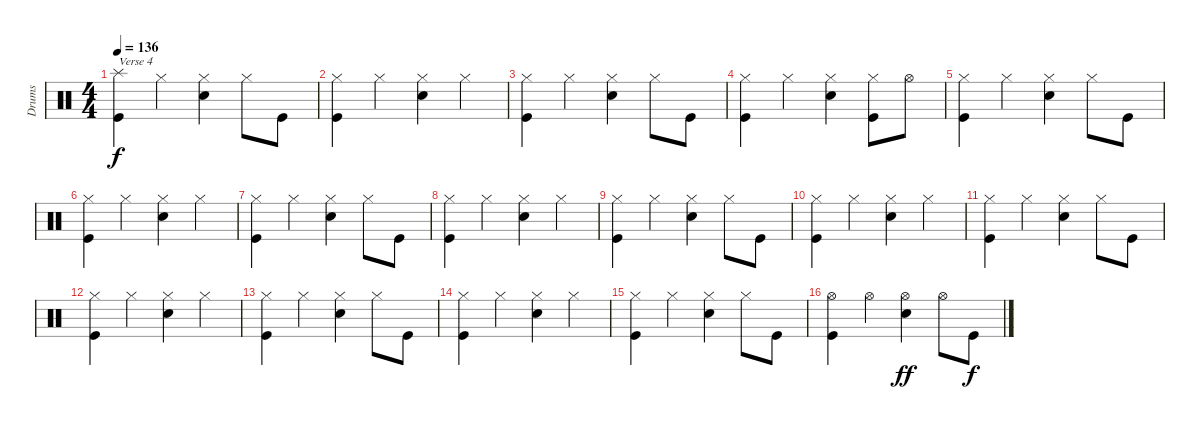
\track ("Drums" "Drums") {instrument percussion}
\staff {score}
\articulation defaults
\ts (4 4)
\tempo 136
\clef neutral
\ks c
("Splash (hit)" "Kick (hit)").4{txt "Verse 4" dy f} "Hi-Hat (closed)".4 ("Hi-Hat (closed)" "Snare (hit) 2").4 "Hi-Hat (closed)".8 "Kick (hit)".8 |
("Hi-Hat (closed)" "Kick (hit)").4 "Hi-Hat (closed)".4 ("Hi-Hat (closed)" "Snare (hit) 2").4 "Hi-Hat (closed)".4 |
("Hi-Hat (closed)" "Kick (hit)").4 "Hi-Hat (closed)".4 ("Hi-Hat (closed)" "Snare (hit) 2").4 "Hi-Hat (closed)".8 "Kick (hit)".8 |
("Hi-Hat (closed)" "Kick (hit)").4 "Hi-Hat (closed)".4 ("Hi-Hat (closed)" "Snare (hit) 2").4 ("Hi-Hat (closed)" "Kick (hit)").8 "Hi-Hat (open)".8 |
("Hi-Hat (closed)" "Kick (hit)").4 "Hi-Hat (closed)".4 ("Hi-Hat (closed)" "Snare (hit) 2").4 "Hi-Hat (closed)".8 "Kick (hit)".8 |
("Hi-Hat (closed)" "Kick (hit)").4 "Hi-Hat (closed)".4 ("Hi-Hat (closed)" "Snare (hit) 2").4 "Hi-Hat (closed)".4 |
("Hi-Hat (closed)" "Kick (hit)").4 "Hi-Hat (closed)".4 ("Hi-Hat (closed)" "Snare (hit) 2").4 "Hi-Hat (closed)".8 "Kick (hit)".8 |
("Hi-Hat (closed)" "Kick (hit)").4 "Hi-Hat (closed)".4 ("Hi-Hat (closed)" "Snare (hit) 2").4 "Hi-Hat (closed)".4 |
("Hi-Hat (closed)" "Kick (hit)").4 "Hi-Hat (closed)".4 ("Hi-Hat (closed)" "Snare (hit) 2").4 "Hi-Hat (closed)".8 "Kick (hit)".8 |
("Hi-Hat (closed)" "Kick (hit)").4 "Hi-Hat (closed)".4 ("Hi-Hat (closed)" "Snare (hit) 2").4 "Hi-Hat (closed)".4 |
("Hi-Hat (closed)" "Kick (hit)").4 "Hi-Hat (closed)".4 ("Hi-Hat (closed)" "Snare (hit) 2").4 "Hi-Hat (closed)".8 "Kick (hit)".8 |
("Hi-Hat (closed)" "Kick (hit)").4 "Hi-Hat (closed)".4 ("Hi-Hat (closed)" "Snare (hit) 2").4 "Hi-Hat (closed)".4 |
("Hi-Hat (closed)" "Kick (hit)").4 "Hi-Hat (closed)".4 ("Hi-Hat (closed)" "Snare (hit) 2").4 "Hi-Hat (closed)".8 "Kick (hit)".8 |
("Hi-Hat (closed)" "Kick (hit)").4 "Hi-Hat (closed)".4 ("Hi-Hat (closed)" "Snare (hit) 2").4 "Hi-Hat (closed)".4 |
("Hi-Hat (closed)" "Kick (hit)").4 "Hi-Hat (closed)".4 ("Hi-Hat (closed)" "Snare (hit) 2").4 "Hi-Hat (closed)".8 "Kick (hit)".8 |
("Hi-Hat (open)" "Kick (hit)").4 "Hi-Hat (open)".4 ("Hi-Hat (open)" "Snare (hit) 2").4{dy ff} "Hi-Hat (open)".8 "Kick (hit)".8{dy f}
